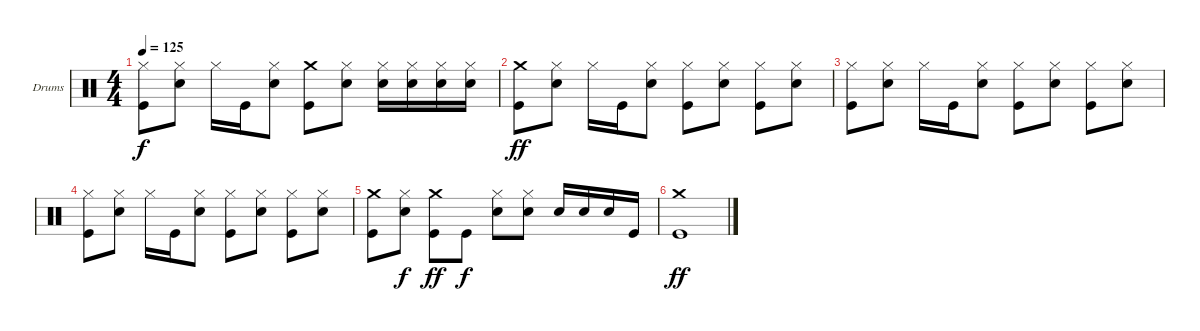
\defaultSystemsLayout 4
\bracketExtendMode groupsimilarinstruments
\firstSystemTrackNameOrientation horizontal
\otherSystemsTrackNameOrientation horizontal
\track ("Drumkit" "Drums") {instrument percussion}
\staff {score}
\articulation defaults
\ts (4 4)
\tempo 125
\clef neutral
\ks c
("Kick (hit)" "Hi-Hat (closed)").8{dy f} ("Snare (hit) 2" "Hi-Hat (closed)").8 "Hi-Hat (closed)".16 "Kick (hit)".16 ("Snare (hit) 2" "Hi-Hat (closed)").8 ("Kick (hit)" "Crash medium (hit)").8 ("Snare (hit) 2" "Hi-Hat (closed)").8 ("Snare (hit) 2" "Hi-Hat (closed)").16 ("Snare (hit) 2" "Hi-Hat (closed)").16 ("Snare (hit) 2" "Hi-Hat (closed)").16 ("Snare (hit) 2" "Hi-Hat (closed)").16 |
("Kick (hit)" "Crash medium (hit)").8{dy ff} ("Snare (hit) 2" "Hi-Hat (closed)").8 "Hi-Hat (closed)".16 "Kick (hit)".16 ("Snare (hit) 2" "Hi-Hat (closed)").8 ("Kick (hit)" "Hi-Hat (closed)").8 ("Snare (hit) 2" "Hi-Hat (closed)").8 ("Kick (hit)" "Hi-Hat (closed)").8 ("Snare (hit) 2" "Hi-Hat (closed)").8 |
("Kick (hit)" "Hi-Hat (closed)").8 ("Snare (hit) 2" "Hi-Hat (closed)").8 "Hi-Hat (closed)".16 "Kick (hit)".16 ("Snare (hit) 2" "Hi-Hat (closed)").8 ("Kick (hit)" "Hi-Hat (closed)").8 ("Snare (hit) 2" "Hi-Hat (closed)").8 ("Kick (hit)" "Hi-Hat (closed)").8 ("Snare (hit) 2" "Hi-Hat (closed)").8 |
("Kick (hit)" "Hi-Hat (closed)").8 ("Snare (hit) 2" "Hi-Hat (closed)").8 "Hi-Hat (closed)".16 "Kick (hit)".16 ("Snare (hit) 2" "Hi-Hat (closed)").8 ("Kick (hit)" "Hi-Hat (closed)").8 ("Snare (hit) 2" "Hi-Hat (closed)").8 ("Kick (hit)" "Hi-Hat (closed)").8 ("Snare (hit) 2" "Hi-Hat (closed)").8 |
("Kick (hit)" "Crash medium (hit)").8 ("Snare (hit) 2" "Hi-Hat (closed)").8{dy f} ("Kick (hit)" "Crash medium (hit)").8{dy ff} "Kick (hit)".8{dy f} ("Snare (hit) 2" "Hi-Hat (closed)").8 ("Snare (hit) 2" "Hi-Hat (closed)").8 "Snare (hit) 2".16 "Snare (hit) 2".16 "Snare (hit) 2".16 "Kick (hit)".16 |
("Kick (hit)" "Crash medium (hit)").1{dy ff}
